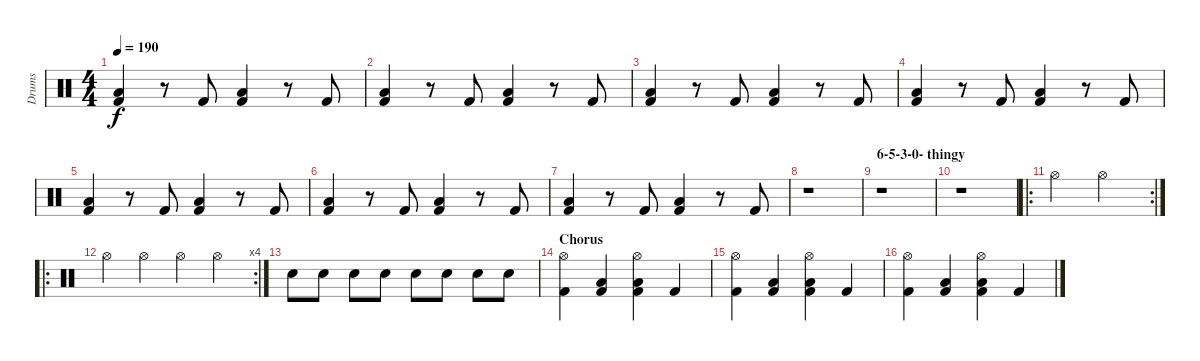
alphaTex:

\track ("Drums" "Drums") {instrument percussion}
\staff {score}
\articulation defaults
\ts (4 4)
\tempo 190
\clef neutral
\ks c
("Low Floor Tom (hit)" "Kick (hit) 2").4{dy f} r.8 "Kick (hit) 2".8 ("Low Floor Tom (hit)" "Kick (hit) 2").4 r.8 "Kick (hit) 2".8 |
("Low Floor Tom (hit)" "Kick (hit) 2").4 r.8 "Kick (hit) 2".8 ("Low Floor Tom (hit)" "Kick (hit) 2").4 r.8 "Kick (hit) 2".8 |
("Low Floor Tom (hit)" "Kick (hit) 2").4 r.8 "Kick (hit) 2".8 ("Low Floor Tom (hit)" "Kick (hit) 2").4 r.8 "Kick (hit) 2".8 |
("Low Floor Tom (hit)" "Kick (hit) 2").4 r.8 "Kick (hit) 2".8 ("Low Floor Tom (hit)" "Kick (hit) 2").4 r.8 "Kick (hit) 2".8 |
("Low Floor Tom (hit)" "Kick (hit) 2").4 r.8 "Kick (hit) 2".8 ("Low Floor Tom (hit)" "Kick (hit) 2").4 r.8 "Kick (hit) 2".8 |
("Low Floor Tom (hit)" "Kick (hit) 2").4 r.8 "Kick (hit) 2".8 ("Low Floor Tom (hit)" "Kick (hit) 2").4 r.8 "Kick (hit) 2".8 |
("Low Floor Tom (hit)" "Kick (hit) 2").4 r.8 "Kick (hit) 2".8 ("Low Floor Tom (hit)" "Kick (hit) 2").4 r.8 "Kick (hit) 2".8 |
r.1 |
\section ("" "6-5-3-0- thingy")
r.1 |
r.1 |
\ro
\rc 2 "Hi-Hat (open)".2 "Hi-Hat (open)".2
|
\ro
\rc 4 "Hi-Hat (open)".4 "Hi-Hat (open)".4 "Hi-Hat (open)".4 "Hi-Hat (open)".4
|
"Snare (hit) 2".8 "Snare (hit) 2".8 "Snare (hit) 2".8 "Snare (hit) 2".8 "Snare (hit) 2".8 "Snare (hit) 2".8 "Snare (hit) 2".8 "Snare (hit) 2".8 |
\section ("" "Chorus")
("Hi-Hat (open)" "Kick (hit) 2").4 ("Low Floor Tom (hit)" "Kick (hit) 2").4 ("Hi-Hat (open)" "Low Floor Tom (hit)" "Kick (hit) 2").4 "Kick (hit) 2".4 |
("Hi-Hat (open)" "Kick (hit) 2").4 ("Low Floor Tom (hit)" "Kick (hit) 2").4 ("Hi-Hat (open)" "Low Floor Tom (hit)" "Kick (hit) 2").4 "Kick (hit) 2".4 |
("Hi-Hat (open)" "Kick (hit) 2").4 ("Low Floor Tom (hit)" "Kick (hit) 2").4 ("Hi-Hat (open)" "Low Floor Tom (hit)" "Kick (hit) 2").4 "Kick (hit) 2".4
